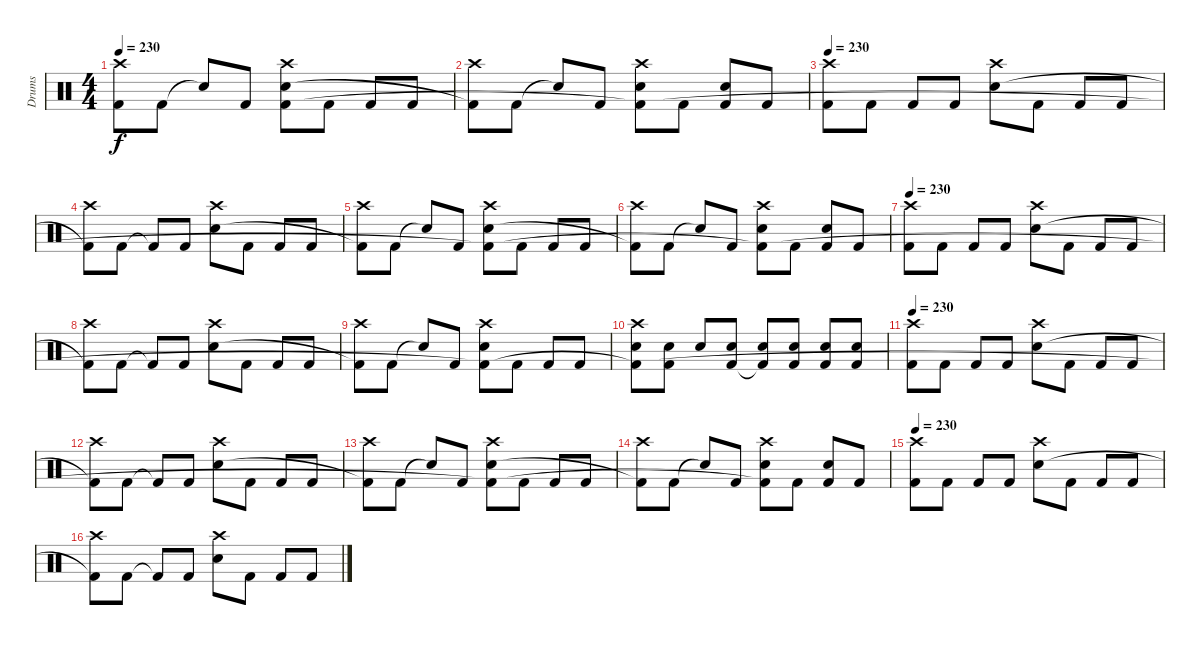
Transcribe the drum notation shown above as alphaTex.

\track ("Drums" "Drums") {instrument percussion}
\staff {score}
\articulation defaults
\ts (4 4)
\tempo 230
\clef neutral
\ks c
("Crash high (hit)" "Kick (hit) 2"{t}).8{dy f} "Kick (hit) 2".8 "Snare (hit)"{t}.8 "Kick (hit) 2".8 ("Crash high (hit)" "Electric Snare (hit)" "Kick (hit) 2"{t}).8 "Kick (hit) 2".8 "Kick (hit) 2".8 "Kick (hit) 2".8 |
("Crash high (hit)" "Kick (hit) 2"{t}).8 "Kick (hit) 2".8 "Snare (hit)"{t}.8 "Kick (hit) 2".8 ("Crash high (hit)" "Electric Snare (hit)" "Kick (hit) 2"{t}).8 "Kick (hit) 2".8 ("Electric Snare (hit)" "Kick (hit) 2").8 "Kick (hit) 2".8 |
\tempo 230
("Crash high (hit)" "Kick (hit) 2").8 "Kick (hit) 2".8 "Kick (hit) 2".8 "Kick (hit) 2".8 ("Crash high (hit)" "Electric Snare (hit)").8 "Kick (hit) 2".8 "Kick (hit) 2".8 "Kick (hit) 2".8 |
("Crash high (hit)" "Kick (hit) 2"{t}).8 "Kick (hit) 2".8 "Kick (hit) 2"{t}.8 "Kick (hit) 2".8 ("Crash high (hit)" "Electric Snare (hit)").8 "Kick (hit) 2".8 "Kick (hit) 2".8 "Kick (hit) 2".8 |
("Crash high (hit)" "Kick (hit) 2"{t}).8 "Kick (hit) 2".8 "Snare (hit)"{t}.8 "Kick (hit) 2".8 ("Crash high (hit)" "Electric Snare (hit)" "Kick (hit) 2"{t}).8 "Kick (hit) 2".8 "Kick (hit) 2".8 "Kick (hit) 2".8 |
("Crash high (hit)" "Kick (hit) 2"{t}).8 "Kick (hit) 2".8 "Snare (hit)"{t}.8 "Kick (hit) 2".8 ("Crash high (hit)" "Electric Snare (hit)" "Kick (hit) 2"{t}).8 "Kick (hit) 2".8 ("Electric Snare (hit)" "Kick (hit) 2").8 "Kick (hit) 2".8 |
\tempo 230
("Crash high (hit)" "Kick (hit) 2").8 "Kick (hit) 2".8 "Kick (hit) 2".8 "Kick (hit) 2".8 ("Crash high (hit)" "Electric Snare (hit)").8 "Kick (hit) 2".8 "Kick (hit) 2".8 "Kick (hit) 2".8 |
("Crash high (hit)" "Kick (hit) 2"{t}).8 "Kick (hit) 2".8 "Kick (hit) 2"{t}.8 "Kick (hit) 2".8 ("Crash high (hit)" "Electric Snare (hit)").8 "Kick (hit) 2".8 "Kick (hit) 2".8 "Kick (hit) 2".8 |
("Crash high (hit)" "Kick (hit) 2"{t}).8 "Kick (hit) 2".8 "Snare (hit)"{t}.8 "Kick (hit) 2".8 ("Crash high (hit)" "Electric Snare (hit)" "Kick (hit) 2"{t}).8 "Kick (hit) 2".8 "Kick (hit) 2".8 "Kick (hit) 2".8 |
("Crash high (hit)" "Electric Snare (hit)" "Kick (hit) 2"{t}).8 ("Electric Snare (hit)" "Kick (hit) 2").8 "Electric Snare (hit)".8 ("Electric Snare (hit)" "Kick (hit) 2").8 ("Electric Snare (hit)" "Kick (hit) 2"{t}).8 ("Electric Snare (hit)" "Kick (hit) 2").8 ("Electric Snare (hit)" "Kick (hit) 2").8 ("Electric Snare (hit)" "Kick (hit) 2").8 |
\tempo 230
("Crash high (hit)" "Kick (hit) 2").8 "Kick (hit) 2".8 "Kick (hit) 2".8 "Kick (hit) 2".8 ("Crash high (hit)" "Electric Snare (hit)").8 "Kick (hit) 2".8 "Kick (hit) 2".8 "Kick (hit) 2".8 |
("Crash high (hit)" "Kick (hit) 2"{t}).8 "Kick (hit) 2".8 "Kick (hit) 2"{t}.8 "Kick (hit) 2".8 ("Crash high (hit)" "Electric Snare (hit)").8 "Kick (hit) 2".8 "Kick (hit) 2".8 "Kick (hit) 2".8 |
("Crash high (hit)" "Kick (hit) 2"{t}).8 "Kick (hit) 2".8 "Snare (hit)"{t}.8 "Kick (hit) 2".8 ("Crash high (hit)" "Electric Snare (hit)" "Kick (hit) 2"{t}).8 "Kick (hit) 2".8 "Kick (hit) 2".8 "Kick (hit) 2".8 |
("Crash high (hit)" "Kick (hit) 2"{t}).8 "Kick (hit) 2".8 "Snare (hit)"{t}.8 "Kick (hit) 2".8 ("Crash high (hit)" "Electric Snare (hit)" "Kick (hit) 2"{t}).8 "Kick (hit) 2".8 ("Electric Snare (hit)" "Kick (hit) 2").8 "Kick (hit) 2".8 |
\tempo 230
("Crash high (hit)" "Kick (hit) 2").8 "Kick (hit) 2".8 "Kick (hit) 2".8 "Kick (hit) 2".8 ("Crash high (hit)" "Electric Snare (hit)").8 "Kick (hit) 2".8 "Kick (hit) 2".8 "Kick (hit) 2".8 |
("Crash high (hit)" "Kick (hit) 2"{t}).8 "Kick (hit) 2".8 "Kick (hit) 2"{t}.8 "Kick (hit) 2".8 ("Crash high (hit)" "Electric Snare (hit)").8 "Kick (hit) 2".8 "Kick (hit) 2".8 "Kick (hit) 2".8
